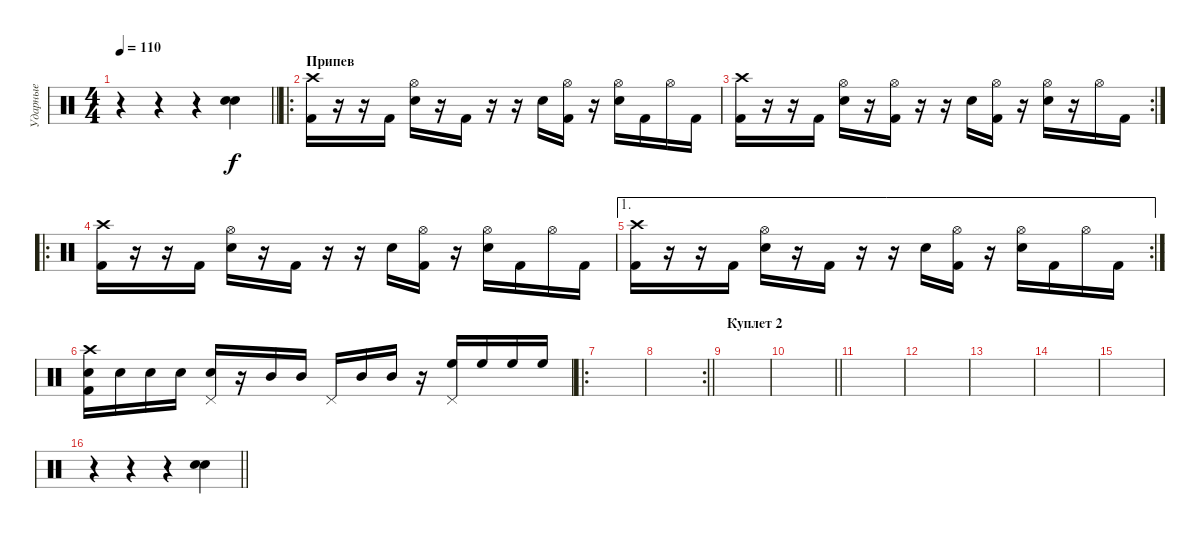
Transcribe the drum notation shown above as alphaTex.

\track ("Ударные" "Ударные") {instrument percussion}
\staff {score}
\articulation defaults
\ts (4 4)
\tempo 110
\clef neutral
\barLineRight lightlight
\ks c
r.4{dy f} r.4 r.4 ("Electric Snare (hit)" "Electric Snare (hit)").4 |
\ro
\section ("" "Припев")
("Kick (hit) 2" "Crash high (hit)").16 r.16 r.16 "Kick (hit) 2".16 ("Electric Snare (hit)" "Hi-Hat (open)").16 r.16 "Kick (hit) 2".16 r.16 r.16 "Electric Snare (hit)".16 ("Kick (hit) 2" "Hi-Hat (open)").16 r.16 ("Electric Snare (hit)" "Hi-Hat (open)").16 "Kick (hit) 2".16 "Hi-Hat (open)".16 "Kick (hit) 2".16 |
\rc 2
("Kick (hit) 2" "Crash high (hit)").16 r.16 r.16 "Kick (hit) 2".16 ("Electric Snare (hit)" "Hi-Hat (open)").16 r.16 ("Kick (hit) 2" "Hi-Hat (open)").16 r.16 r.16 "Electric Snare (hit)".16 ("Kick (hit) 2" "Hi-Hat (open)").16 r.16 ("Electric Snare (hit)" "Hi-Hat (open)").16 r.16 "Hi-Hat (open)".16 "Kick (hit) 2".16 |
\ro
("Kick (hit) 2" "Crash high (hit)").16 r.16 r.16 "Kick (hit) 2".16 ("Electric Snare (hit)" "Hi-Hat (open)").16 r.16 "Kick (hit) 2".16 r.16 r.16 "Electric Snare (hit)".16 ("Kick (hit) 2" "Hi-Hat (open)").16 r.16 ("Electric Snare (hit)" "Hi-Hat (open)").16 "Kick (hit) 2".16 "Hi-Hat (open)".16 "Kick (hit) 2".16 |
\ae 1
\rc 2
("Kick (hit) 2" "Crash high (hit)").16 r.16 r.16 "Kick (hit) 2".16 ("Electric Snare (hit)" "Hi-Hat (open)").16 r.16 "Kick (hit) 2".16 r.16 r.16 "Electric Snare (hit)".16 ("Kick (hit) 2" "Hi-Hat (open)").16 r.16 ("Electric Snare (hit)" "Hi-Hat (open)").16 "Kick (hit) 2".16 "Hi-Hat (open)".16 "Kick (hit) 2".16 |
("Kick (hit) 2" "Electric Snare (hit)" "Crash high (hit)").16 "Electric Snare (hit)".16 "Electric Snare (hit)".16 "Electric Snare (hit)".16 ("Electric Snare (hit)" "Pedal Hi-Hat (hit)").16 r.16 "Mid Tom (hit)".16 "Mid Tom (hit)".16 "Pedal Hi-Hat (hit)".16 "Mid Tom (hit)".16 "Mid Tom (hit)".16 r.16 ("High Floor Tom (hit)" "Pedal Hi-Hat (hit)").16 "High Floor Tom (hit)".16 "High Floor Tom (hit)".16 "High Floor Tom (hit)".16 |
\ro
|
\rc 2
\barLineRight lightlight
|
\section ("" "Куплет 2")
|
\barLineRight lightlight
|
|
|
|
|
|
\barLineRight lightlight
r.4 r.4 r.4 ("Electric Snare (hit)" "Electric Snare (hit)").4
